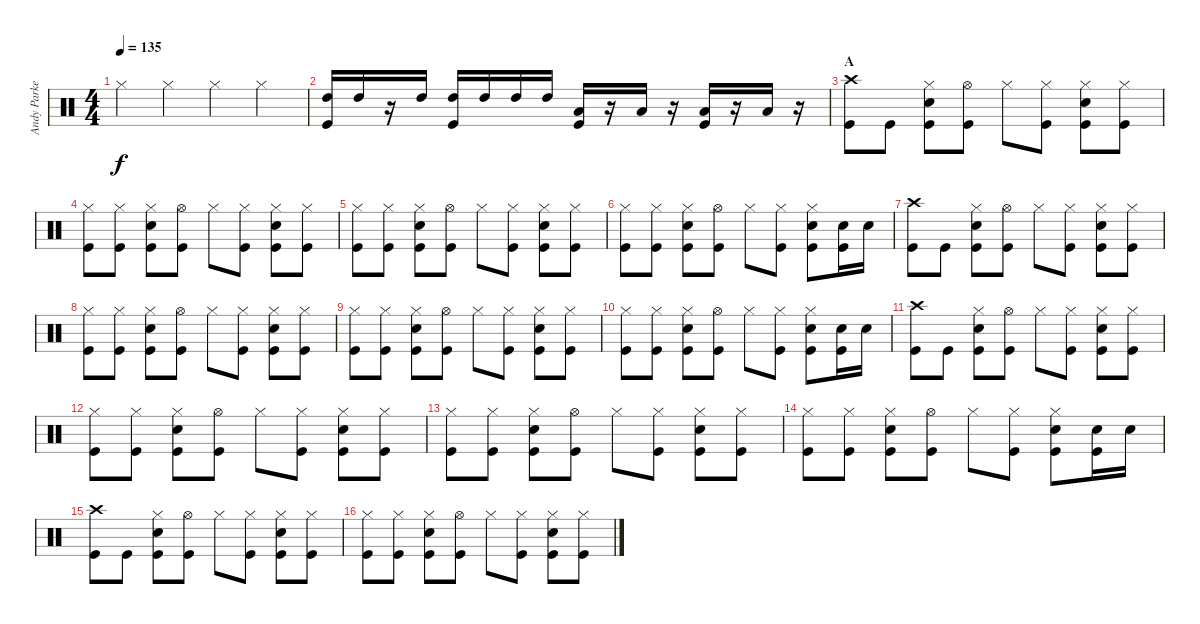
\track ("Andy Parker" "Andy Parke") {instrument percussion}
\staff {score}
\articulation defaults
\ts (4 4)
\tempo 135
\clef neutral
\ks c "Hi-Hat (closed)".4{dy f} "Hi-Hat (closed)".4 "Hi-Hat (closed)".4 "Hi-Hat (closed)".4
|
("High Tom (hit)" "Kick (hit)").16 "High Tom (hit)".16 r.16 "High Tom (hit)".16 ("High Tom (hit)" "Kick (hit)").16 "High Tom (hit)".16 "High Tom (hit)".16 "High Tom (hit)".16 ("Low Floor Tom (hit)" "Kick (hit)").16 r.16 "Low Floor Tom (hit)".16 r.16 ("Low Floor Tom (hit)" "Kick (hit)").16 r.16 "Low Floor Tom (hit)".16 r.16 |
\section ("" "A")
("Crash high (hit)" "Kick (hit)").8 "Kick (hit)".8 ("Hi-Hat (closed)" "Snare (hit) 2" "Kick (hit)").8 ("Hi-Hat (open)" "Kick (hit)").8 "Hi-Hat (closed)".8 ("Hi-Hat (closed)" "Kick (hit)").8 ("Hi-Hat (closed)" "Snare (hit) 2" "Kick (hit)").8 ("Hi-Hat (closed)" "Kick (hit)").8 |
("Hi-Hat (closed)" "Kick (hit)").8 ("Hi-Hat (closed)" "Kick (hit)").8 ("Hi-Hat (closed)" "Snare (hit) 2" "Kick (hit)").8 ("Hi-Hat (open)" "Kick (hit)").8 "Hi-Hat (closed)".8 ("Hi-Hat (closed)" "Kick (hit)").8 ("Hi-Hat (closed)" "Snare (hit) 2" "Kick (hit)").8 ("Hi-Hat (closed)" "Kick (hit)").8 |
("Hi-Hat (closed)" "Kick (hit)").8 ("Hi-Hat (closed)" "Kick (hit)").8 ("Hi-Hat (closed)" "Snare (hit) 2" "Kick (hit)").8 ("Hi-Hat (open)" "Kick (hit)").8 "Hi-Hat (closed)".8 ("Hi-Hat (closed)" "Kick (hit)").8 ("Hi-Hat (closed)" "Snare (hit) 2" "Kick (hit)").8 ("Hi-Hat (closed)" "Kick (hit)").8 |
("Hi-Hat (closed)" "Kick (hit)").8 ("Hi-Hat (closed)" "Kick (hit)").8 ("Hi-Hat (closed)" "Snare (hit) 2" "Kick (hit)").8 ("Hi-Hat (open)" "Kick (hit)").8 "Hi-Hat (closed)".8 ("Hi-Hat (closed)" "Kick (hit)").8 ("Hi-Hat (closed)" "Snare (hit) 2" "Kick (hit)").8 ("Snare (hit) 2" "Kick (hit)").16 "Snare (hit) 2".16 |
("Crash high (hit)" "Kick (hit)").8 "Kick (hit)".8 ("Hi-Hat (closed)" "Snare (hit) 2" "Kick (hit)").8 ("Hi-Hat (open)" "Kick (hit)").8 "Hi-Hat (closed)".8 ("Hi-Hat (closed)" "Kick (hit)").8 ("Hi-Hat (closed)" "Snare (hit) 2" "Kick (hit)").8 ("Hi-Hat (closed)" "Kick (hit)").8 |
("Hi-Hat (closed)" "Kick (hit)").8 ("Hi-Hat (closed)" "Kick (hit)").8 ("Hi-Hat (closed)" "Snare (hit) 2" "Kick (hit)").8 ("Hi-Hat (open)" "Kick (hit)").8 "Hi-Hat (closed)".8 ("Hi-Hat (closed)" "Kick (hit)").8 ("Hi-Hat (closed)" "Snare (hit) 2" "Kick (hit)").8 ("Hi-Hat (closed)" "Kick (hit)").8 |
("Hi-Hat (closed)" "Kick (hit)").8 ("Hi-Hat (closed)" "Kick (hit)").8 ("Hi-Hat (closed)" "Snare (hit) 2" "Kick (hit)").8 ("Hi-Hat (open)" "Kick (hit)").8 "Hi-Hat (closed)".8 ("Hi-Hat (closed)" "Kick (hit)").8 ("Hi-Hat (closed)" "Snare (hit) 2" "Kick (hit)").8 ("Hi-Hat (closed)" "Kick (hit)").8 |
("Hi-Hat (closed)" "Kick (hit)").8 ("Hi-Hat (closed)" "Kick (hit)").8 ("Hi-Hat (closed)" "Snare (hit) 2" "Kick (hit)").8 ("Hi-Hat (open)" "Kick (hit)").8 "Hi-Hat (closed)".8 ("Hi-Hat (closed)" "Kick (hit)").8 ("Hi-Hat (closed)" "Snare (hit) 2" "Kick (hit)").8 ("Snare (hit) 2" "Kick (hit)").16 "Snare (hit) 2".16 |
("Crash high (hit)" "Kick (hit)").8 "Kick (hit)".8 ("Hi-Hat (closed)" "Snare (hit) 2" "Kick (hit)").8 ("Hi-Hat (open)" "Kick (hit)").8 "Hi-Hat (closed)".8 ("Hi-Hat (closed)" "Kick (hit)").8 ("Hi-Hat (closed)" "Snare (hit) 2" "Kick (hit)").8 ("Hi-Hat (closed)" "Kick (hit)").8 |
("Hi-Hat (closed)" "Kick (hit)").8 ("Hi-Hat (closed)" "Kick (hit)").8 ("Hi-Hat (closed)" "Snare (hit) 2" "Kick (hit)").8 ("Hi-Hat (open)" "Kick (hit)").8 "Hi-Hat (closed)".8 ("Hi-Hat (closed)" "Kick (hit)").8 ("Hi-Hat (closed)" "Snare (hit) 2" "Kick (hit)").8 ("Hi-Hat (closed)" "Kick (hit)").8 |
("Hi-Hat (closed)" "Kick (hit)").8 ("Hi-Hat (closed)" "Kick (hit)").8 ("Hi-Hat (closed)" "Snare (hit) 2" "Kick (hit)").8 ("Hi-Hat (open)" "Kick (hit)").8 "Hi-Hat (closed)".8 ("Hi-Hat (closed)" "Kick (hit)").8 ("Hi-Hat (closed)" "Snare (hit) 2" "Kick (hit)").8 ("Hi-Hat (closed)" "Kick (hit)").8 |
("Hi-Hat (closed)" "Kick (hit)").8 ("Hi-Hat (closed)" "Kick (hit)").8 ("Hi-Hat (closed)" "Snare (hit) 2" "Kick (hit)").8 ("Hi-Hat (open)" "Kick (hit)").8 "Hi-Hat (closed)".8 ("Hi-Hat (closed)" "Kick (hit)").8 ("Hi-Hat (closed)" "Snare (hit) 2" "Kick (hit)").8 ("Snare (hit) 2" "Kick (hit)").16 "Snare (hit) 2".16 |
("Crash high (hit)" "Kick (hit)").8 "Kick (hit)".8 ("Hi-Hat (closed)" "Snare (hit) 2" "Kick (hit)").8 ("Hi-Hat (open)" "Kick (hit)").8 "Hi-Hat (closed)".8 ("Hi-Hat (closed)" "Kick (hit)").8 ("Hi-Hat (closed)" "Snare (hit) 2" "Kick (hit)").8 ("Hi-Hat (closed)" "Kick (hit)").8 |
("Hi-Hat (closed)" "Kick (hit)").8 ("Hi-Hat (closed)" "Kick (hit)").8 ("Hi-Hat (closed)" "Snare (hit) 2" "Kick (hit)").8 ("Hi-Hat (open)" "Kick (hit)").8 "Hi-Hat (closed)".8 ("Hi-Hat (closed)" "Kick (hit)").8 ("Hi-Hat (closed)" "Snare (hit) 2" "Kick (hit)").8 ("Hi-Hat (closed)" "Kick (hit)").8
